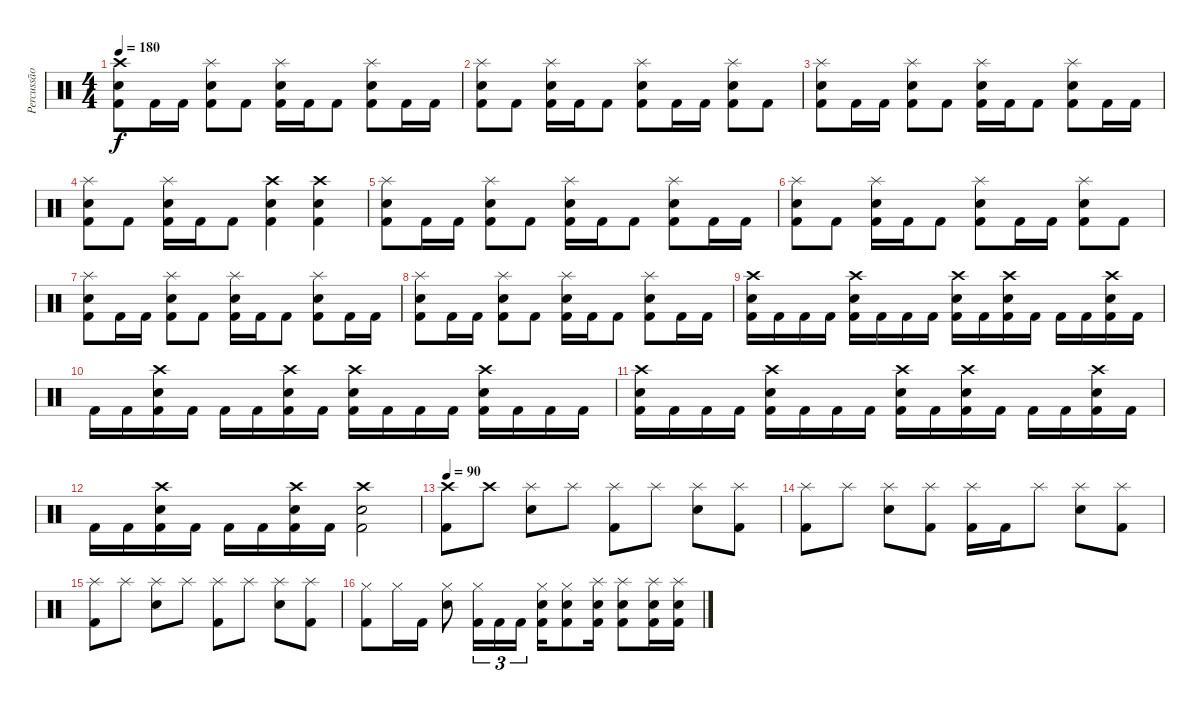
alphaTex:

\track ("Percussão" "Percussão") {instrument percussion}
\staff {score}
\articulation defaults
\ts (4 4)
\tempo 180
\clef neutral
\ks c
("Kick (hit) 2" "Snare (hit) 2" "Crash high (hit)").8{dy f} "Kick (hit) 2".16 "Kick (hit) 2".16 ("Kick (hit) 2" "Snare (hit) 2" "Splash (hit)").8 "Kick (hit) 2".8 ("Kick (hit) 2" "Snare (hit) 2" "Splash (hit)").16 "Kick (hit) 2".16 "Kick (hit) 2".8 ("Kick (hit) 2" "Snare (hit) 2" "Splash (hit)").8 "Kick (hit) 2".16 "Kick (hit) 2".16 |
("Kick (hit) 2" "Snare (hit) 2" "Splash (hit)").8 "Kick (hit) 2".8 ("Kick (hit) 2" "Snare (hit) 2" "Splash (hit)").16 "Kick (hit) 2".16 "Kick (hit) 2".8 ("Kick (hit) 2" "Snare (hit) 2" "Splash (hit)").8 "Kick (hit) 2".16 "Kick (hit) 2".16 ("Kick (hit) 2" "Snare (hit) 2" "Splash (hit)").8 "Kick (hit) 2".8 |
("Kick (hit) 2" "Snare (hit) 2" "Splash (hit)").8 "Kick (hit) 2".16 "Kick (hit) 2".16 ("Kick (hit) 2" "Snare (hit) 2" "Splash (hit)").8 "Kick (hit) 2".8 ("Kick (hit) 2" "Snare (hit) 2" "Splash (hit)").16 "Kick (hit) 2".16 "Kick (hit) 2".8 ("Kick (hit) 2" "Snare (hit) 2" "Splash (hit)").8 "Kick (hit) 2".16 "Kick (hit) 2".16 |
("Kick (hit) 2" "Snare (hit) 2" "Splash (hit)").8 "Kick (hit) 2".8 ("Kick (hit) 2" "Snare (hit) 2" "Splash (hit)").16 "Kick (hit) 2".16 "Kick (hit) 2".8 ("Kick (hit) 2" "Snare (hit) 2" "Crash high (hit)").4 ("Kick (hit) 2" "Snare (hit) 2" "Crash high (hit)").4 |
("Kick (hit) 2" "Snare (hit) 2" "Splash (hit)").8 "Kick (hit) 2".16 "Kick (hit) 2".16 ("Kick (hit) 2" "Snare (hit) 2" "Splash (hit)").8 "Kick (hit) 2".8 ("Kick (hit) 2" "Snare (hit) 2" "Splash (hit)").16 "Kick (hit) 2".16 "Kick (hit) 2".8 ("Kick (hit) 2" "Snare (hit) 2" "Splash (hit)").8 "Kick (hit) 2".16 "Kick (hit) 2".16 |
("Kick (hit) 2" "Snare (hit) 2" "Splash (hit)").8 "Kick (hit) 2".8 ("Kick (hit) 2" "Snare (hit) 2" "Splash (hit)").16 "Kick (hit) 2".16 "Kick (hit) 2".8 ("Kick (hit) 2" "Snare (hit) 2" "Splash (hit)").8 "Kick (hit) 2".16 "Kick (hit) 2".16 ("Kick (hit) 2" "Snare (hit) 2" "Splash (hit)").8 "Kick (hit) 2".8 |
("Kick (hit) 2" "Snare (hit) 2" "Splash (hit)").8 "Kick (hit) 2".16 "Kick (hit) 2".16 ("Kick (hit) 2" "Snare (hit) 2" "Splash (hit)").8 "Kick (hit) 2".8 ("Kick (hit) 2" "Snare (hit) 2" "Splash (hit)").16 "Kick (hit) 2".16 "Kick (hit) 2".8 ("Kick (hit) 2" "Snare (hit) 2" "Splash (hit)").8 "Kick (hit) 2".16 "Kick (hit) 2".16 |
("Kick (hit) 2" "Snare (hit) 2" "Splash (hit)").8 "Kick (hit) 2".16 "Kick (hit) 2".16 ("Kick (hit) 2" "Snare (hit) 2" "Splash (hit)").8 "Kick (hit) 2".8 ("Kick (hit) 2" "Snare (hit) 2" "Splash (hit)").16 "Kick (hit) 2".16 "Kick (hit) 2".8 ("Kick (hit) 2" "Snare (hit) 2" "Splash (hit)").8 "Kick (hit) 2".16 "Kick (hit) 2".16 |
("Kick (hit) 2" "Snare (hit) 2" "Crash high (hit)").16 "Kick (hit) 2".16 "Kick (hit) 2".16 "Kick (hit) 2".16 ("Kick (hit) 2" "Snare (hit) 2" "Crash high (hit)").16 "Kick (hit) 2".16 "Kick (hit) 2".16 "Kick (hit) 2".16 ("Kick (hit) 2" "Snare (hit) 2" "Crash high (hit)").16 "Kick (hit) 2".16 ("Kick (hit) 2" "Snare (hit) 2" "Crash high (hit)").16 "Kick (hit) 2".16 "Kick (hit) 2".16 "Kick (hit) 2".16 ("Kick (hit) 2" "Snare (hit) 2" "Crash high (hit)").16 "Kick (hit) 2".16 |
"Kick (hit) 2".16 "Kick (hit) 2".16 ("Kick (hit) 2" "Snare (hit) 2" "Crash high (hit)").16 "Kick (hit) 2".16 "Kick (hit) 2".16 "Kick (hit) 2".16 ("Kick (hit) 2" "Snare (hit) 2" "Crash high (hit)").16 "Kick (hit) 2".16 ("Kick (hit) 2" "Snare (hit) 2" "Crash high (hit)").16 "Kick (hit) 2".16 "Kick (hit) 2".16 "Kick (hit) 2".16 ("Kick (hit) 2" "Snare (hit) 2" "Crash high (hit)").16 "Kick (hit) 2".16 "Kick (hit) 2".16 "Kick (hit) 2".16 |
("Kick (hit) 2" "Snare (hit) 2" "Crash high (hit)").16 "Kick (hit) 2".16 "Kick (hit) 2".16 "Kick (hit) 2".16 ("Kick (hit) 2" "Snare (hit) 2" "Crash high (hit)").16 "Kick (hit) 2".16 "Kick (hit) 2".16 "Kick (hit) 2".16 ("Kick (hit) 2" "Snare (hit) 2" "Crash high (hit)").16 "Kick (hit) 2".16 ("Kick (hit) 2" "Snare (hit) 2" "Crash high (hit)").16 "Kick (hit) 2".16 "Kick (hit) 2".16 "Kick (hit) 2".16 ("Kick (hit) 2" "Snare (hit) 2" "Crash high (hit)").16 "Kick (hit) 2".16 |
"Kick (hit) 2".16 "Kick (hit) 2".16 ("Kick (hit) 2" "Snare (hit) 2" "Crash high (hit)").16 "Kick (hit) 2".16 "Kick (hit) 2".16 "Kick (hit) 2".16 ("Kick (hit) 2" "Snare (hit) 2" "Crash high (hit)").16 "Kick (hit) 2".16 ("Kick (hit) 2" "Snare (hit) 2" "Crash high (hit)").2 |
\tempo 90
("Kick (hit) 2" "Crash high (hit)").8 "Crash high (hit)".8 ("Snare (hit) 2" "Splash (hit)").8 "Splash (hit)".8 ("Kick (hit) 2" "Splash (hit)").8 "Splash (hit)".8 ("Snare (hit) 2" "Splash (hit)").8 ("Kick (hit) 2" "Splash (hit)").8 |
("Kick (hit) 2" "Splash (hit)").8 "Splash (hit)".8 ("Snare (hit) 2" "Splash (hit)").8 ("Kick (hit) 2" "Splash (hit)").8 ("Kick (hit) 2" "Splash (hit)").16 "Kick (hit) 2".16 "Splash (hit)".8 ("Snare (hit) 2" "Splash (hit)").8 ("Kick (hit) 2" "Splash (hit)").8 |
("Kick (hit) 2" "Splash (hit)").8 "Splash (hit)".8 ("Snare (hit) 2" "Splash (hit)").8 "Splash (hit)".8 ("Kick (hit) 2" "Splash (hit)").8 "Splash (hit)".8 ("Snare (hit) 2" "Splash (hit)").8 ("Kick (hit) 2" "Splash (hit)").8 |
("Kick (hit) 2" "Hi-Hat (closed)").8 "Hi-Hat (closed)".16 "Kick (hit) 2".16 ("Snare (hit) 2" "Hi-Hat (closed)").8 ("Kick (hit) 2" "Hi-Hat (closed)").16{tu (3 2)} "Kick (hit) 2".16{tu (3 2)} "Kick (hit) 2".16{tu (3 2)} ("Kick (hit) 2" "Snare (hit) 2" "Hi-Hat (closed)").16 ("Kick (hit) 2" "Snare (hit) 2" "Hi-Hat (closed)").8 ("Kick (hit) 2" "Snare (hit) 2" "Splash (hit)").16 ("Kick (hit) 2" "Snare (hit) 2" "Splash (hit)").8 ("Kick (hit) 2" "Snare (hit) 2" "Splash (hit)").16 ("Kick (hit) 2" "Snare (hit) 2" "Splash (hit)").16
